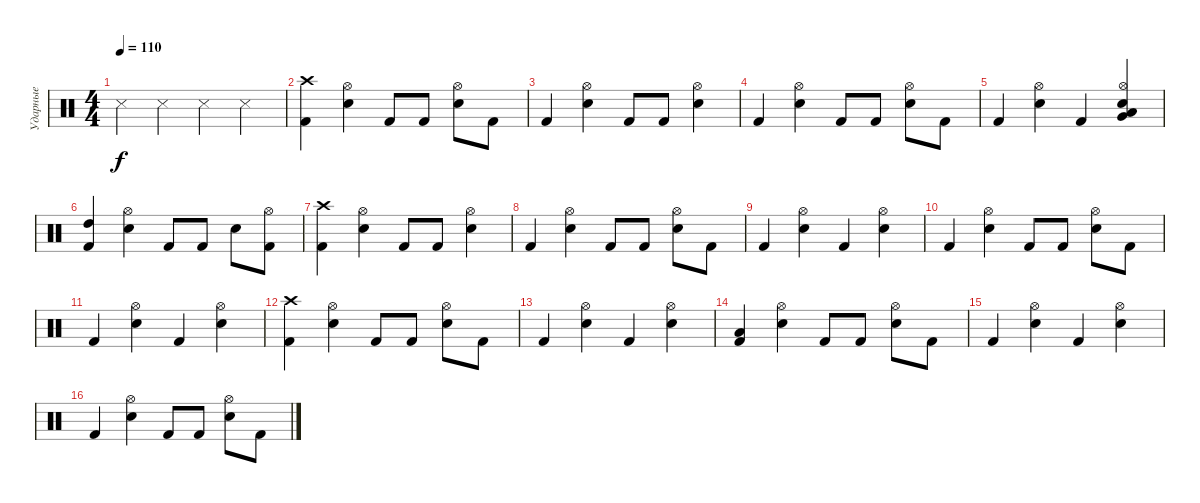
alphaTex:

\track ("Ударные" "Ударные") {instrument percussion}
\staff {score}
\articulation defaults
\ts (4 4)
\tempo 110
\clef neutral
\ks c "Metronome (hit)".4{dy f} "Metronome (hit)".4 "Metronome (hit)".4 "Metronome (hit)".4
|
("Kick (hit) 2" "Crash high (hit)").4 ("Snare (hit) 2" "Hi-Hat (open)").4 "Kick (hit) 2".8 "Kick (hit) 2".8 ("Snare (hit) 2" "Hi-Hat (open)").8 "Kick (hit) 2".8 |
"Kick (hit) 2".4 ("Snare (hit) 2" "Hi-Hat (open)").4 "Kick (hit) 2".8 "Kick (hit) 2".8 ("Snare (hit) 2" "Hi-Hat (open)").4 |
"Kick (hit) 2".4 ("Snare (hit) 2" "Hi-Hat (open)").4 "Kick (hit) 2".8 "Kick (hit) 2".8 ("Snare (hit) 2" "Hi-Hat (open)").8 "Kick (hit) 2".8 |
"Kick (hit) 2".4 ("Snare (hit) 2" "Hi-Hat (open)").4 "Kick (hit) 2".4 ("Snare (hit) 2" "Hi-Hat (open)" "Low Floor Tom (hit)" "Very Low Tom (hit)").4 |
("Kick (hit) 2" "High Tom (hit)").4 ("Snare (hit) 2" "Hi-Hat (open)").4 "Kick (hit) 2".8 "Kick (hit) 2".8 "Snare (hit) 2".8 ("Kick (hit) 2" "Hi-Hat (open)").8 |
("Kick (hit) 2" "Crash high (hit)").4 ("Snare (hit) 2" "Hi-Hat (open)").4 "Kick (hit) 2".8 "Kick (hit) 2".8 ("Snare (hit) 2" "Hi-Hat (open)").4 |
"Kick (hit) 2".4 ("Snare (hit) 2" "Hi-Hat (open)").4 "Kick (hit) 2".8 "Kick (hit) 2".8 ("Snare (hit) 2" "Hi-Hat (open)").8 "Kick (hit) 2".8 |
"Kick (hit) 2".4 ("Snare (hit) 2" "Hi-Hat (open)").4 "Kick (hit) 2".4 ("Snare (hit) 2" "Hi-Hat (open)").4 |
"Kick (hit) 2".4 ("Snare (hit) 2" "Hi-Hat (open)").4 "Kick (hit) 2".8 "Kick (hit) 2".8 ("Snare (hit) 2" "Hi-Hat (open)").8 "Kick (hit) 2".8 |
"Kick (hit) 2".4 ("Snare (hit) 2" "Hi-Hat (open)").4 "Kick (hit) 2".4 ("Snare (hit) 2" "Hi-Hat (open)").4 |
("Kick (hit) 2" "Crash high (hit)").4 ("Snare (hit) 2" "Hi-Hat (open)").4 "Kick (hit) 2".8 "Kick (hit) 2".8 ("Snare (hit) 2" "Hi-Hat (open)").8 "Kick (hit) 2".8 |
"Kick (hit) 2".4 ("Snare (hit) 2" "Hi-Hat (open)").4 "Kick (hit) 2".4 ("Snare (hit) 2" "Hi-Hat (open)").4 |
("Kick (hit) 2" "Low Floor Tom (hit)").4 ("Snare (hit) 2" "Hi-Hat (open)").4 "Kick (hit) 2".8 "Kick (hit) 2".8 ("Snare (hit) 2" "Hi-Hat (open)").8 "Kick (hit) 2".8 |
"Kick (hit) 2".4 ("Snare (hit) 2" "Hi-Hat (open)").4 "Kick (hit) 2".4 ("Snare (hit) 2" "Hi-Hat (open)").4 |
"Kick (hit) 2".4 ("Snare (hit) 2" "Hi-Hat (open)").4 "Kick (hit) 2".8 "Kick (hit) 2".8 ("Snare (hit) 2" "Hi-Hat (open)").8 "Kick (hit) 2".8
